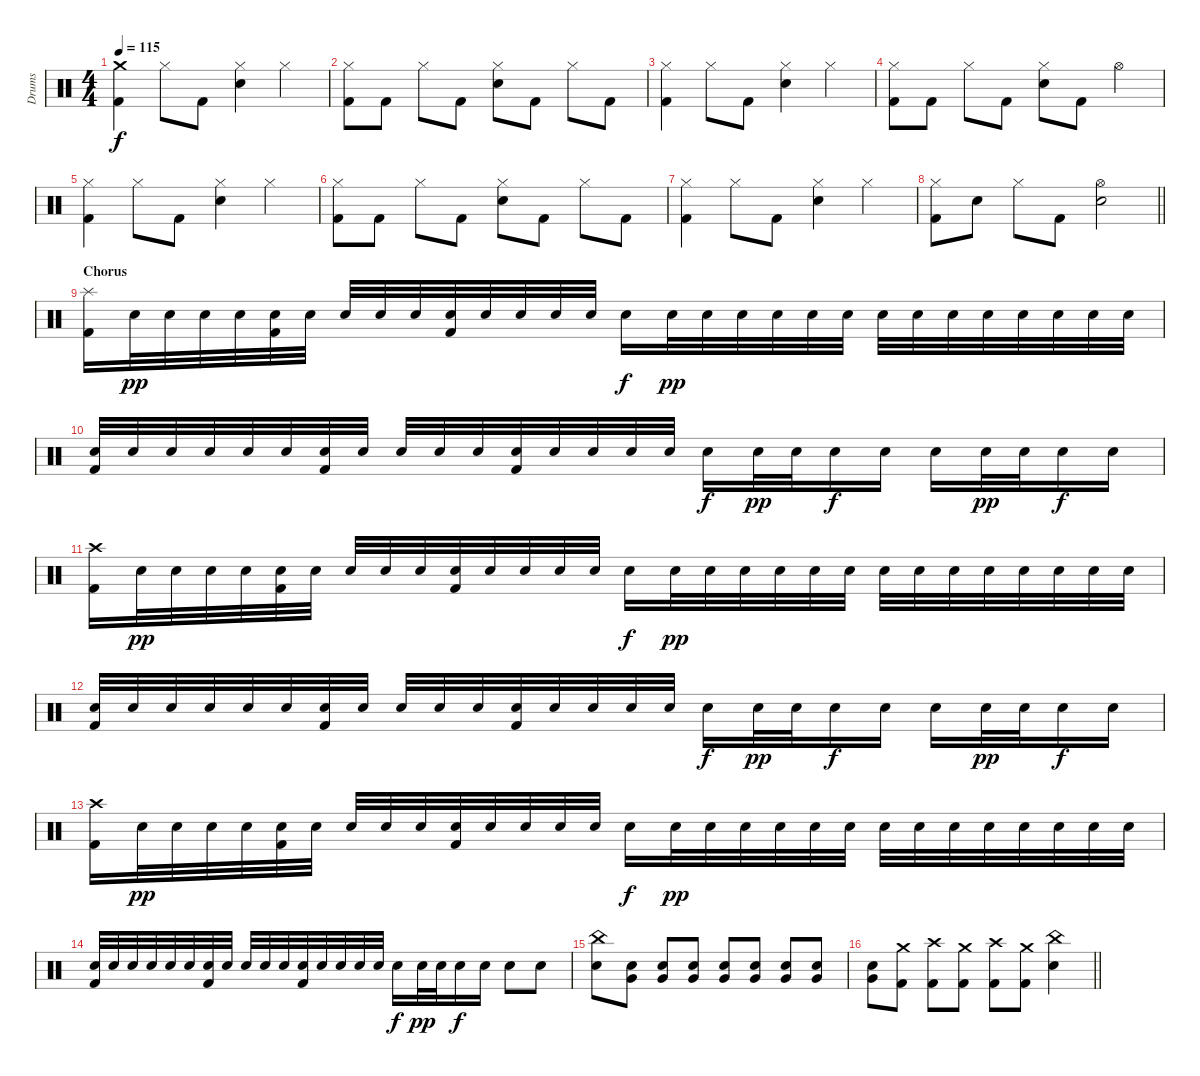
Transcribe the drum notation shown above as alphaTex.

\track ("Drums" "Drums") {instrument percussion}
\staff {score}
\articulation defaults
\ts (4 4)
\tempo 115
\clef neutral
\ks c
("Crash medium (hit)" "Kick (hit) 2").4{dy f} "Hi-Hat (closed)".8 "Kick (hit) 2".8 ("Hi-Hat (closed)" "Snare (hit) 2").4 "Hi-Hat (closed)".4 |
("Hi-Hat (closed)" "Kick (hit) 2").8 "Kick (hit) 2".8 "Hi-Hat (closed)".8 "Kick (hit) 2".8 ("Hi-Hat (closed)" "Snare (hit) 2").8 "Kick (hit) 2".8 "Hi-Hat (closed)".8 "Kick (hit) 2".8 |
("Hi-Hat (closed)" "Kick (hit) 2").4 "Hi-Hat (closed)".8 "Kick (hit) 2".8 ("Hi-Hat (closed)" "Snare (hit) 2").4 "Hi-Hat (closed)".4 |
("Hi-Hat (closed)" "Kick (hit) 2").8 "Kick (hit) 2".8 "Hi-Hat (closed)".8 "Kick (hit) 2".8 ("Hi-Hat (closed)" "Snare (hit) 2").8 "Kick (hit) 2".8 "Hi-Hat (open)".4 |
("Hi-Hat (closed)" "Kick (hit) 2").4 "Hi-Hat (closed)".8 "Kick (hit) 2".8 ("Hi-Hat (closed)" "Snare (hit) 2").4 "Hi-Hat (closed)".4 |
("Hi-Hat (closed)" "Kick (hit) 2").8 "Kick (hit) 2".8 "Hi-Hat (closed)".8 "Kick (hit) 2".8 ("Hi-Hat (closed)" "Snare (hit) 2").8 "Kick (hit) 2".8 "Hi-Hat (closed)".8 "Kick (hit) 2".8 |
("Hi-Hat (closed)" "Kick (hit) 2").4 "Hi-Hat (closed)".8 "Kick (hit) 2".8 ("Hi-Hat (closed)" "Snare (hit) 2").4 "Hi-Hat (closed)".4 |
\barLineRight lightlight
("Hi-Hat (closed)" "Kick (hit) 2").8 "Snare (hit) 2".8 "Hi-Hat (closed)".8 "Kick (hit) 2".8 ("Hi-Hat (open)" "Snare (hit) 2").2 |
\section ("" "Chorus")
("Splash (hit)" "Kick (hit) 2").16 "Snare (hit) 2".32{dy pp} "Snare (hit) 2".32 "Snare (hit) 2".32 "Snare (hit) 2".32 ("Snare (hit) 2" "Kick (hit) 2").32 "Snare (hit) 2".32 "Snare (hit) 2".32 "Snare (hit) 2".32 "Snare (hit) 2".32 ("Snare (hit) 2" "Kick (hit) 2").32 "Snare (hit) 2".32 "Snare (hit) 2".32 "Snare (hit) 2".32 "Snare (hit) 2".32 "Snare (hit) 2".16{dy f} "Snare (hit) 2".32{dy pp} "Snare (hit) 2".32 "Snare (hit) 2".32 "Snare (hit) 2".32 "Snare (hit) 2".32 "Snare (hit) 2".32 "Snare (hit) 2".32 "Snare (hit) 2".32 "Snare (hit) 2".32 "Snare (hit) 2".32 "Snare (hit) 2".32 "Snare (hit) 2".32 "Snare (hit) 2".32 "Snare (hit) 2".32 |
("Snare (hit) 2" "Kick (hit) 2").32 "Snare (hit) 2".32 "Snare (hit) 2".32 "Snare (hit) 2".32 "Snare (hit) 2".32 "Snare (hit) 2".32 ("Snare (hit) 2" "Kick (hit) 2").32 "Snare (hit) 2".32 "Snare (hit) 2".32 "Snare (hit) 2".32 "Snare (hit) 2".32 ("Snare (hit) 2" "Kick (hit) 2").32 "Snare (hit) 2".32 "Snare (hit) 2".32 "Snare (hit) 2".32 "Snare (hit) 2".32 "Snare (hit) 2".16{dy f} "Snare (hit) 2".32{dy pp} "Snare (hit) 2".32 "Snare (hit) 2".16{dy f} "Snare (hit) 2".16 "Snare (hit) 2".16 "Snare (hit) 2".32{dy pp} "Snare (hit) 2".32 "Snare (hit) 2".16{dy f} "Snare (hit) 2".16 |
("Crash high (hit)" "Kick (hit) 2").16 "Snare (hit) 2".32{dy pp} "Snare (hit) 2".32 "Snare (hit) 2".32 "Snare (hit) 2".32 ("Snare (hit) 2" "Kick (hit) 2").32 "Snare (hit) 2".32 "Snare (hit) 2".32 "Snare (hit) 2".32 "Snare (hit) 2".32 ("Snare (hit) 2" "Kick (hit) 2").32 "Snare (hit) 2".32 "Snare (hit) 2".32 "Snare (hit) 2".32 "Snare (hit) 2".32 "Snare (hit) 2".16{dy f} "Snare (hit) 2".32{dy pp} "Snare (hit) 2".32 "Snare (hit) 2".32 "Snare (hit) 2".32 "Snare (hit) 2".32 "Snare (hit) 2".32 "Snare (hit) 2".32 "Snare (hit) 2".32 "Snare (hit) 2".32 "Snare (hit) 2".32 "Snare (hit) 2".32 "Snare (hit) 2".32 "Snare (hit) 2".32 "Snare (hit) 2".32 |
("Snare (hit) 2" "Kick (hit) 2").32 "Snare (hit) 2".32 "Snare (hit) 2".32 "Snare (hit) 2".32 "Snare (hit) 2".32 "Snare (hit) 2".32 ("Snare (hit) 2" "Kick (hit) 2").32 "Snare (hit) 2".32 "Snare (hit) 2".32 "Snare (hit) 2".32 "Snare (hit) 2".32 ("Snare (hit) 2" "Kick (hit) 2").32 "Snare (hit) 2".32 "Snare (hit) 2".32 "Snare (hit) 2".32 "Snare (hit) 2".32 "Snare (hit) 2".16{dy f} "Snare (hit) 2".32{dy pp} "Snare (hit) 2".32 "Snare (hit) 2".16{dy f} "Snare (hit) 2".16 "Snare (hit) 2".16 "Snare (hit) 2".32{dy pp} "Snare (hit) 2".32 "Snare (hit) 2".16{dy f} "Snare (hit) 2".16 |
("Crash high (hit)" "Kick (hit) 2").16 "Snare (hit) 2".32{dy pp} "Snare (hit) 2".32 "Snare (hit) 2".32 "Snare (hit) 2".32 ("Snare (hit) 2" "Kick (hit) 2").32 "Snare (hit) 2".32 "Snare (hit) 2".32 "Snare (hit) 2".32 "Snare (hit) 2".32 ("Snare (hit) 2" "Kick (hit) 2").32 "Snare (hit) 2".32 "Snare (hit) 2".32 "Snare (hit) 2".32 "Snare (hit) 2".32 "Snare (hit) 2".16{dy f} "Snare (hit) 2".32{dy pp} "Snare (hit) 2".32 "Snare (hit) 2".32 "Snare (hit) 2".32 "Snare (hit) 2".32 "Snare (hit) 2".32 "Snare (hit) 2".32 "Snare (hit) 2".32 "Snare (hit) 2".32 "Snare (hit) 2".32 "Snare (hit) 2".32 "Snare (hit) 2".32 "Snare (hit) 2".32 "Snare (hit) 2".32 |
("Snare (hit) 2" "Kick (hit) 2").32 "Snare (hit) 2".32 "Snare (hit) 2".32 "Snare (hit) 2".32 "Snare (hit) 2".32 "Snare (hit) 2".32 ("Snare (hit) 2" "Kick (hit) 2").32 "Snare (hit) 2".32 "Snare (hit) 2".32 "Snare (hit) 2".32 "Snare (hit) 2".32 ("Snare (hit) 2" "Kick (hit) 2").32 "Snare (hit) 2".32 "Snare (hit) 2".32 "Snare (hit) 2".32 "Snare (hit) 2".32 "Snare (hit) 2".16{dy f} "Snare (hit) 2".32{dy pp} "Snare (hit) 2".32 "Snare (hit) 2".16{dy f} "Snare (hit) 2".16 "Snare (hit) 2".8 "Snare (hit) 2".8 |
("China (hit)" "Snare (hit) 2").8 ("Snare (hit) 2" "Very Low Tom (hit)").8 ("Snare (hit) 2" "Very Low Tom (hit)").8 ("Snare (hit) 2" "Very Low Tom (hit)").8 ("Snare (hit) 2" "Very Low Tom (hit)").8 ("Snare (hit) 2" "Very Low Tom (hit)").8 ("Snare (hit) 2" "Very Low Tom (hit)").8 ("Snare (hit) 2" "Very Low Tom (hit)").8 |
\barLineRight lightlight
("Snare (hit) 2" "Very Low Tom (hit)").8 ("Crash medium (hit)" "Kick (hit) 2").8 ("Crash high (hit)" "Kick (hit) 2").8 ("Crash medium (hit)" "Kick (hit) 2").8 ("Crash high (hit)" "Kick (hit) 2").8 ("Crash medium (hit)" "Kick (hit) 2").8 ("China (hit)" "Snare (hit) 2").4
